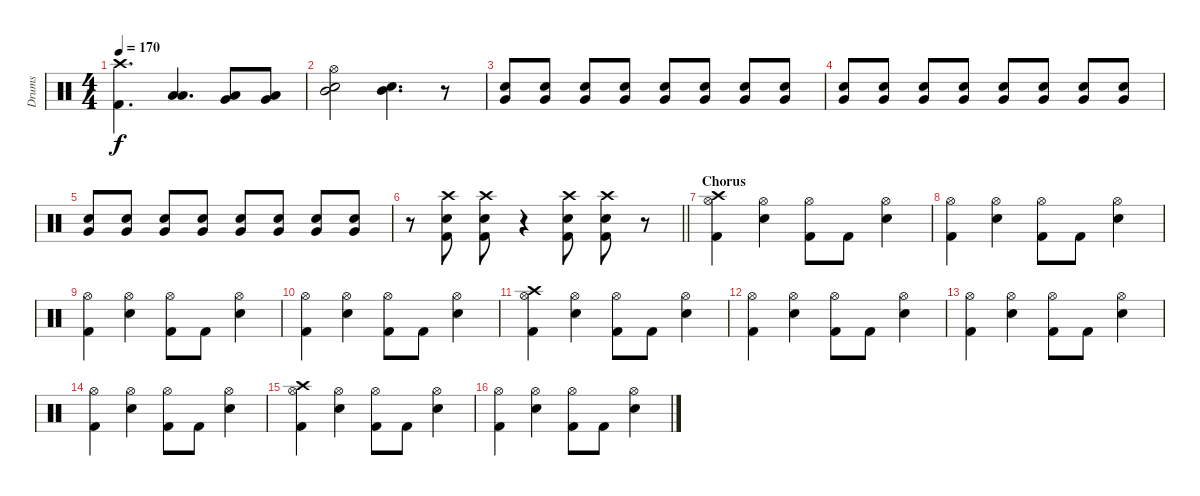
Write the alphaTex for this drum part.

\track ("Drums" "Drums") {instrument percussion}
\staff {score}
\articulation defaults
\ts (4 4)
\tempo 170
\clef neutral
\ks c
("Crash high (hit)" "Kick (hit) 2").4{d dy f} ("Low Tom (hit)" "Low Floor Tom (hit)").4{d} ("Low Tom (hit)" "Very Low Tom (hit)").8 ("Low Tom (hit)" "Very Low Tom (hit)").8 |
("Hi-Hat (open)" "Mid Tom (hit)" "Electric Snare (hit)").2 ("Mid Tom (hit)" "Electric Snare (hit)").4{d} r.8{volume 0} |
("Very Low Tom (hit)" "Electric Snare (hit)").8{volume 16} ("Very Low Tom (hit)" "Electric Snare (hit)").8 ("Very Low Tom (hit)" "Electric Snare (hit)").8 ("Very Low Tom (hit)" "Electric Snare (hit)").8 ("Very Low Tom (hit)" "Electric Snare (hit)").8 ("Very Low Tom (hit)" "Electric Snare (hit)").8 ("Very Low Tom (hit)" "Electric Snare (hit)").8 ("Very Low Tom (hit)" "Electric Snare (hit)").8 |
("Very Low Tom (hit)" "Electric Snare (hit)").8 ("Very Low Tom (hit)" "Electric Snare (hit)").8 ("Very Low Tom (hit)" "Electric Snare (hit)").8 ("Very Low Tom (hit)" "Electric Snare (hit)").8 ("Very Low Tom (hit)" "Electric Snare (hit)").8 ("Very Low Tom (hit)" "Electric Snare (hit)").8 ("Very Low Tom (hit)" "Electric Snare (hit)").8 ("Very Low Tom (hit)" "Electric Snare (hit)").8 |
("Very Low Tom (hit)" "Electric Snare (hit)").8 ("Very Low Tom (hit)" "Electric Snare (hit)").8 ("Very Low Tom (hit)" "Electric Snare (hit)").8 ("Very Low Tom (hit)" "Electric Snare (hit)").8 ("Very Low Tom (hit)" "Electric Snare (hit)").8 ("Very Low Tom (hit)" "Electric Snare (hit)").8 ("Very Low Tom (hit)" "Electric Snare (hit)").8 ("Very Low Tom (hit)" "Electric Snare (hit)").8 |
\barLineRight lightlight
r.8 ("Crash high (hit)" "Electric Snare (hit)" "Kick (hit) 2").8 ("Crash high (hit)" "Electric Snare (hit)" "Kick (hit) 2").8 r.4 ("Crash high (hit)" "Electric Snare (hit)" "Kick (hit) 2").8 ("Crash high (hit)" "Electric Snare (hit)" "Kick (hit) 2").8 r.8 |
\section ("" "Chorus")
("Crash high (hit)" "Hi-Hat (open)" "Kick (hit) 2").4 ("Hi-Hat (open)" "Electric Snare (hit)").4 ("Hi-Hat (open)" "Kick (hit) 2").8 "Kick (hit) 2".8 ("Hi-Hat (open)" "Electric Snare (hit)").4 |
("Hi-Hat (open)" "Kick (hit) 2").4 ("Hi-Hat (open)" "Electric Snare (hit)").4 ("Hi-Hat (open)" "Kick (hit) 2").8 "Kick (hit) 2".8 ("Hi-Hat (open)" "Electric Snare (hit)").4 |
("Hi-Hat (open)" "Kick (hit) 2").4 ("Hi-Hat (open)" "Electric Snare (hit)").4 ("Hi-Hat (open)" "Kick (hit) 2").8 "Kick (hit) 2".8 ("Hi-Hat (open)" "Electric Snare (hit)").4 |
("Hi-Hat (open)" "Kick (hit) 2").4 ("Hi-Hat (open)" "Electric Snare (hit)").4 ("Hi-Hat (open)" "Kick (hit) 2").8 "Kick (hit) 2".8 ("Hi-Hat (open)" "Electric Snare (hit)").4 |
("Crash high (hit)" "Hi-Hat (open)" "Kick (hit) 2").4 ("Hi-Hat (open)" "Electric Snare (hit)").4 ("Hi-Hat (open)" "Kick (hit) 2").8 "Kick (hit) 2".8 ("Hi-Hat (open)" "Electric Snare (hit)").4 |
("Hi-Hat (open)" "Kick (hit) 2").4 ("Hi-Hat (open)" "Electric Snare (hit)").4 ("Hi-Hat (open)" "Kick (hit) 2").8 "Kick (hit) 2".8 ("Hi-Hat (open)" "Electric Snare (hit)").4 |
("Hi-Hat (open)" "Kick (hit) 2").4 ("Hi-Hat (open)" "Electric Snare (hit)").4 ("Hi-Hat (open)" "Kick (hit) 2").8 "Kick (hit) 2".8 ("Hi-Hat (open)" "Electric Snare (hit)").4 |
("Hi-Hat (open)" "Kick (hit) 2").4 ("Hi-Hat (open)" "Electric Snare (hit)").4 ("Hi-Hat (open)" "Kick (hit) 2").8 "Kick (hit) 2".8 ("Hi-Hat (open)" "Electric Snare (hit)").4 |
("Crash high (hit)" "Hi-Hat (open)" "Kick (hit) 2").4 ("Hi-Hat (open)" "Electric Snare (hit)").4 ("Hi-Hat (open)" "Kick (hit) 2").8 "Kick (hit) 2".8 ("Hi-Hat (open)" "Electric Snare (hit)").4 |
("Hi-Hat (open)" "Kick (hit) 2").4 ("Hi-Hat (open)" "Electric Snare (hit)").4 ("Hi-Hat (open)" "Kick (hit) 2").8 "Kick (hit) 2".8 ("Hi-Hat (open)" "Electric Snare (hit)").4
